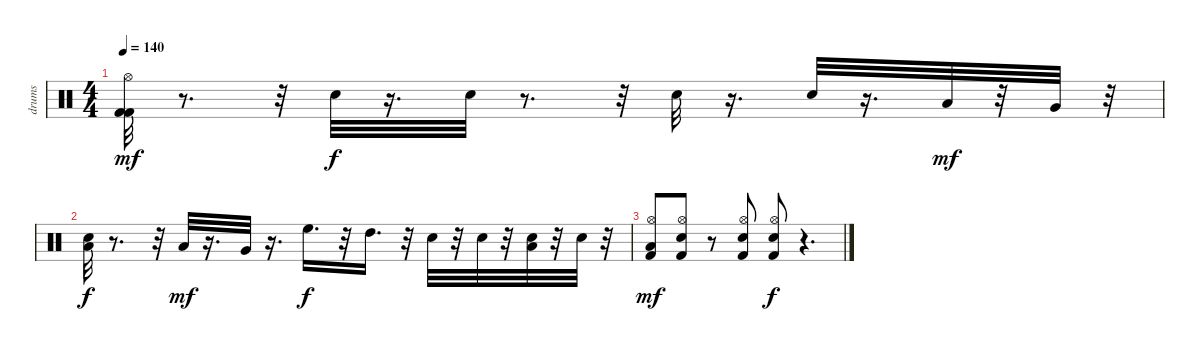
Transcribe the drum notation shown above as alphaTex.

\track ("drums" "drums") {instrument percussion}
\staff {score}
\articulation defaults
\ts (4 4)
\tempo 140
\clef neutral
\ks c
("Kick (hit) 2" "Kick (hit) 2" "Hi-Hat (open)").32{dy mf} r.8{d} r.32 "Snare (hit) 2".32{dy f} r.16{d} "Snare (hit) 2".32 r.8{d} r.32 "Snare (hit) 2".32 r.16{d} "Snare (hit) 2".32 r.16{d} "Low Tom (hit)".32{dy mf} r.32 "Very Low Tom (hit)".32 r.32 |
("Snare (hit) 2" "Low Floor Tom (hit)").32{dy f} r.8{d} r.32 "Low Tom (hit)".32{dy mf} r.16{d} "Very Low Tom (hit)".32 r.16{d} "High Floor Tom (hit)".16{d dy f} r.32 "High Tom (hit)".16{d} r.32 "Snare (hit) 2".32 r.32 "Snare (hit) 2".32 r.32 ("Snare (hit) 2" "Low Floor Tom (hit)").32 r.32 "Snare (hit) 2".32 r.32 |
("Kick (hit) 2" "Hi-Hat (open)" "Low Floor Tom (hit)").8{dy mf} ("Kick (hit) 2" "Snare (hit) 2" "Hi-Hat (open)").8 r.8 ("Kick (hit) 2" "Snare (hit) 2" "Hi-Hat (open)").8 ("Kick (hit) 2" "Snare (hit) 2" "Hi-Hat (open)").8{dy f} r.4{d}
